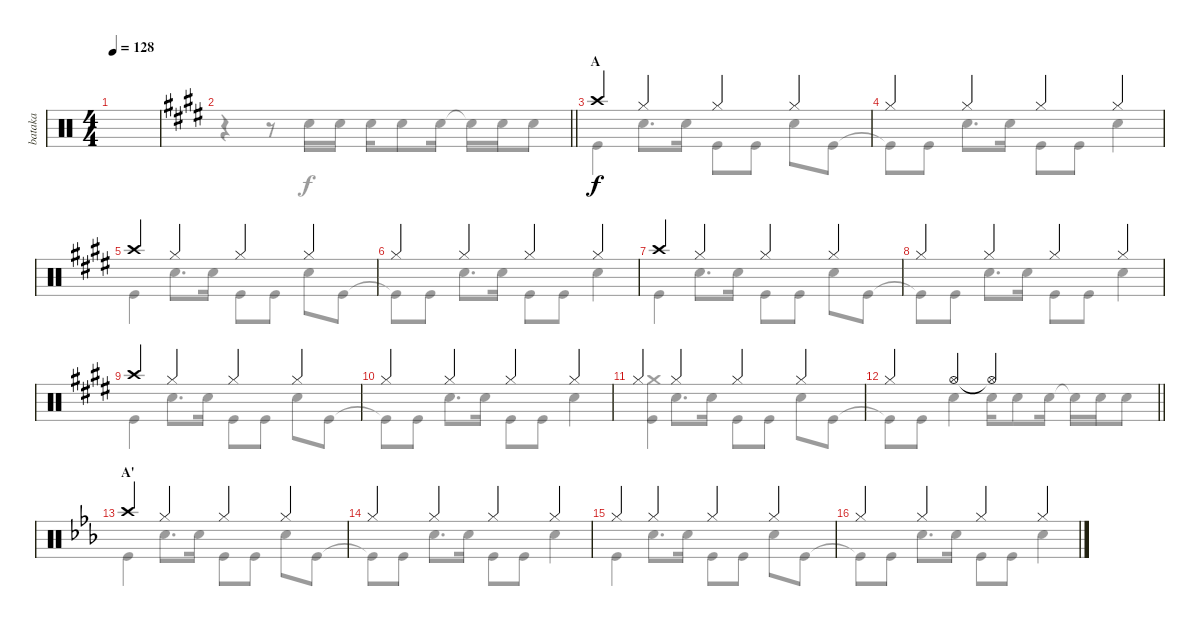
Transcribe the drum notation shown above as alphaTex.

\track ("bataka" "bataka") {mute instrument percussion}
\staff {score}
\articulation defaults
\voice
\ts (4 4)
\tempo 128
\clef neutral
\ks c
|
\barLineRight lightlight
\ks e
|
\section ("" "A")
"Crash high (hit)".4 "Hi-Hat (closed)".4 "Hi-Hat (closed)".4 "Hi-Hat (closed)".4 |
"Hi-Hat (closed)".4 "Hi-Hat (closed)".4 "Hi-Hat (closed)".4 "Hi-Hat (closed)".4 |
"Crash high (hit)".4 "Hi-Hat (closed)".4 "Hi-Hat (closed)".4 "Hi-Hat (closed)".4 |
"Hi-Hat (closed)".4 "Hi-Hat (closed)".4 "Hi-Hat (closed)".4 "Hi-Hat (closed)".4 |
"Crash high (hit)".4 "Hi-Hat (closed)".4 "Hi-Hat (closed)".4 "Hi-Hat (closed)".4 |
"Hi-Hat (closed)".4 "Hi-Hat (closed)".4 "Hi-Hat (closed)".4 "Hi-Hat (closed)".4 |
"Crash high (hit)".4 "Hi-Hat (closed)".4 "Hi-Hat (closed)".4 "Hi-Hat (closed)".4 |
"Hi-Hat (closed)".4 "Hi-Hat (closed)".4 "Hi-Hat (closed)".4 "Hi-Hat (closed)".4 |
"Hi-Hat (closed)".4 "Hi-Hat (closed)".4 "Hi-Hat (closed)".4 "Hi-Hat (closed)".4 |
\barLineRight lightlight "Hi-Hat (closed)".4 "Hi-Hat (open)".4 "Hi-Hat (open)"{t}.2
|
\section ("" "A'")
\ks eb "Crash high (hit)".4 "Hi-Hat (closed)".4 "Hi-Hat (closed)".4 "Hi-Hat (closed)".4
|
"Hi-Hat (closed)".4 "Hi-Hat (closed)".4 "Hi-Hat (closed)".4 "Hi-Hat (closed)".4 |
"Hi-Hat (closed)".4 "Hi-Hat (closed)".4 "Hi-Hat (closed)".4 "Hi-Hat (closed)".4 |
"Hi-Hat (closed)".4 "Hi-Hat (closed)".4 "Hi-Hat (closed)".4 "Hi-Hat (closed)".4
\voice
\clef neutral
\ottava regular
\simile none
\ks c
|
\barLineRight lightlight
\ks e
r.4 r.8 "Snare (hit) 2".16 "Snare (hit) 2".16 "Snare (hit) 2".16 "Snare (hit) 2".8 "Snare (hit) 2".16 "Snare (hit) 2"{t}.16 "Snare (hit) 2".16 "Snare (hit) 2".8 |
"Kick (hit)".4 "Snare (hit) 2".8{d} "Snare (hit) 2".16 "Kick (hit)".8 "Kick (hit)".8 "Snare (hit) 2".8 "Kick (hit)".8 |
"Kick (hit)"{t}.8 "Kick (hit)".8 "Snare (hit) 2".8{d} "Snare (hit) 2".16 "Kick (hit)".8 "Kick (hit)".8 "Snare (hit) 2".4 |
"Kick (hit)".4 "Snare (hit) 2".8{d} "Snare (hit) 2".16 "Kick (hit)".8 "Kick (hit)".8 "Snare (hit) 2".8 "Kick (hit)".8 |
"Kick (hit)"{t}.8 "Kick (hit)".8 "Snare (hit) 2".8{d} "Snare (hit) 2".16 "Kick (hit)".8 "Kick (hit)".8 "Snare (hit) 2".4 |
"Kick (hit)".4 "Snare (hit) 2".8{d} "Snare (hit) 2".16 "Kick (hit)".8 "Kick (hit)".8 "Snare (hit) 2".8 "Kick (hit)".8 |
"Kick (hit)"{t}.8 "Kick (hit)".8 "Snare (hit) 2".8{d} "Snare (hit) 2".16 "Kick (hit)".8 "Kick (hit)".8 "Snare (hit) 2".4 |
"Kick (hit)".4 "Snare (hit) 2".8{d} "Snare (hit) 2".16 "Kick (hit)".8 "Kick (hit)".8 "Snare (hit) 2".8 "Kick (hit)".8 |
"Kick (hit)"{t}.8 "Kick (hit)".8 "Snare (hit) 2".8{d} "Snare (hit) 2".16 "Kick (hit)".8 "Kick (hit)".8 "Snare (hit) 2".4 |
("Kick (hit)" "Crash medium (hit)").4 "Snare (hit) 2".8{d} "Snare (hit) 2".16 "Kick (hit)".8 "Kick (hit)".8 "Snare (hit) 2".8 "Kick (hit)".8 |
\barLineRight lightlight "Kick (hit)"{t}.8 "Kick (hit)".8 "Snare (hit) 2".4 "Snare (hit) 2".16 "Snare (hit) 2".8 "Snare (hit) 2".16 "Snare (hit) 2"{t}.16 "Snare (hit) 2".16 "Snare (hit) 2".8
|
\ks eb "Kick (hit)".4 "Snare (hit) 2".8{d} "Snare (hit) 2".16 "Kick (hit)".8 "Kick (hit)".8 "Snare (hit) 2".8 "Kick (hit)".8
|
"Kick (hit)"{t}.8 "Kick (hit)".8 "Snare (hit) 2".8{d} "Snare (hit) 2".16 "Kick (hit)".8 "Kick (hit)".8 "Snare (hit) 2".4 |
"Kick (hit)".4 "Snare (hit) 2".8{d} "Snare (hit) 2".16 "Kick (hit)".8 "Kick (hit)".8 "Snare (hit) 2".8 "Kick (hit)".8 |
"Kick (hit)"{t}.8 "Kick (hit)".8 "Snare (hit) 2".8{d} "Snare (hit) 2".16 "Kick (hit)".8 "Kick (hit)".8 "Snare (hit) 2".4
